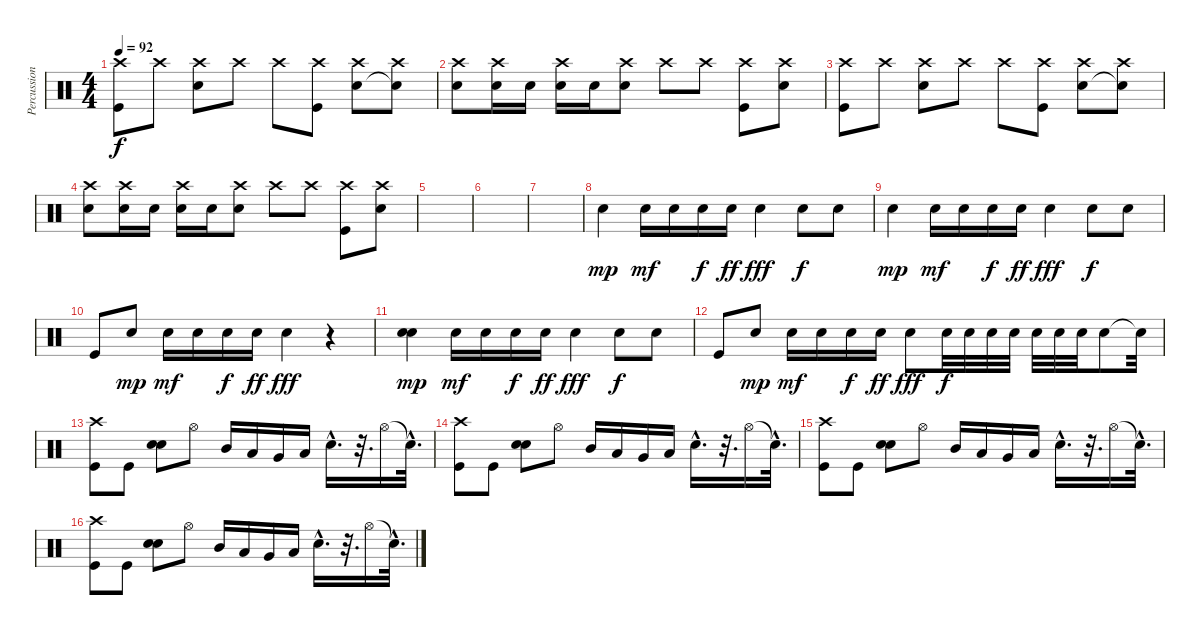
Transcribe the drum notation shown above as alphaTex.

\track ("Percussions (Etn)" "Percussion") {instrument percussion}
\staff {score}
\articulation defaults
\ts (4 4)
\tempo 92
\clef neutral
\ks c
("Crash high (hit)" "Kick (hit)").8{dy f} "Crash high (hit)".8 ("Crash high (hit)" "Electric Snare (hit)").8 "Crash high (hit)".8 "Crash high (hit)".8 ("Crash high (hit)" "Kick (hit)").8 ("Crash high (hit)" "Electric Snare (hit)").8 ("Crash high (hit)" "Electric Snare (hit)"{t}).8 |
("Crash high (hit)" "Electric Snare (hit)").8 ("Crash high (hit)" "Electric Snare (hit)").16 "Electric Snare (hit)".16 ("Crash high (hit)" "Electric Snare (hit)").16 "Electric Snare (hit)".16 ("Crash high (hit)" "Electric Snare (hit)").8 "Crash high (hit)".8 "Crash high (hit)".8 ("Crash high (hit)" "Kick (hit)").8 ("Crash high (hit)" "Electric Snare (hit)").8 |
("Crash high (hit)" "Kick (hit)").8 "Crash high (hit)".8 ("Crash high (hit)" "Electric Snare (hit)").8 "Crash high (hit)".8 "Crash high (hit)".8 ("Crash high (hit)" "Kick (hit)").8 ("Crash high (hit)" "Electric Snare (hit)").8 ("Crash high (hit)" "Electric Snare (hit)"{t}).8 |
("Crash high (hit)" "Electric Snare (hit)").8 ("Crash high (hit)" "Electric Snare (hit)").16 "Electric Snare (hit)".16 ("Crash high (hit)" "Electric Snare (hit)").16 "Electric Snare (hit)".16 ("Crash high (hit)" "Electric Snare (hit)").8 "Crash high (hit)".8 "Crash high (hit)".8 ("Crash high (hit)" "Kick (hit)").8 ("Crash high (hit)" "Electric Snare (hit)").8 |
|
|
|
"Electric Snare (hit)".4{dy mp} "Electric Snare (hit)".16{dy mf} "Electric Snare (hit)".16 "Electric Snare (hit)".16{dy f} "Electric Snare (hit)".16{dy ff} "Electric Snare (hit)".4{dy fff} "Electric Snare (hit)".8{dy f} "Electric Snare (hit)".8 |
"Electric Snare (hit)".4{dy mp} "Electric Snare (hit)".16{dy mf} "Electric Snare (hit)".16 "Electric Snare (hit)".16{dy f} "Electric Snare (hit)".16{dy ff} "Electric Snare (hit)".4{dy fff} "Electric Snare (hit)".8{dy f} "Electric Snare (hit)".8 |
"Kick (hit)".8 "Electric Snare (hit)".8{dy mp} "Electric Snare (hit)".16{dy mf} "Electric Snare (hit)".16 "Electric Snare (hit)".16{dy f} "Electric Snare (hit)".16{dy ff} "Electric Snare (hit)".4{dy fff} r.4 |
("Snare (hit) 2" "Electric Snare (hit)").4{bd 480 dy mp} "Electric Snare (hit)".16{dy mf} "Electric Snare (hit)".16 "Electric Snare (hit)".16{dy f} "Electric Snare (hit)".16{dy ff} "Electric Snare (hit)".4{dy fff} "Electric Snare (hit)".8{dy f} "Electric Snare (hit)".8 |
"Kick (hit)".8 "Electric Snare (hit)".8{dy mp} "Electric Snare (hit)".16{dy mf} "Electric Snare (hit)".16 "Electric Snare (hit)".16{dy f} "Electric Snare (hit)".16{dy ff} "Electric Snare (hit)".8{dy fff} "Electric Snare (hit)".32{dy f} "Electric Snare (hit)".32 "Electric Snare (hit)".32 "Electric Snare (hit)".32 "Electric Snare (hit)".32 "Electric Snare (hit)".32 "Electric Snare (hit)".32 "Electric Snare (hit)".8 "Snare (hit)"{t}.32 |
("Crash high (hit)" "Kick (hit)").8 "Kick (hit)".8 ("Snare (hit) 2" "Electric Snare (hit)").8{bd 120} "Hi-Hat (open)".8 "Mid Tom (hit)".16 "Low Tom (hit)".16 "Very Low Tom (hit)".16 "Low Floor Tom (hit)".16 "Electric Snare (hit)"{hac}.16{d} r.32{d} "Hi-Hat (open)".16 "Snare (hit)"{hac t}.32{d} |
("Crash high (hit)" "Kick (hit)").8 "Kick (hit)".8 ("Snare (hit) 2" "Electric Snare (hit)").8{bd 120} "Hi-Hat (open)".8 "Mid Tom (hit)".16 "Low Tom (hit)".16 "Very Low Tom (hit)".16 "Low Floor Tom (hit)".16 "Electric Snare (hit)"{hac}.16{d} r.32{d} "Hi-Hat (open)".16 "Snare (hit)"{hac t}.32{d} |
("Crash high (hit)" "Kick (hit)").8 "Kick (hit)".8 ("Snare (hit) 2" "Electric Snare (hit)").8{bd 120} "Hi-Hat (open)".8 "Mid Tom (hit)".16 "Low Tom (hit)".16 "Very Low Tom (hit)".16 "Low Floor Tom (hit)".16 "Electric Snare (hit)"{hac}.16{d} r.32{d} "Hi-Hat (open)".16 "Snare (hit)"{hac t}.32{d} |
("Crash high (hit)" "Kick (hit)").8 "Kick (hit)".8 ("Snare (hit) 2" "Electric Snare (hit)").8{bd 120} "Hi-Hat (open)".8 "Mid Tom (hit)".16 "Low Tom (hit)".16 "Very Low Tom (hit)".16 "Low Floor Tom (hit)".16 "Electric Snare (hit)"{hac}.16{d} r.32{d} "Hi-Hat (open)".16 "Snare (hit)"{hac t}.32{d}
